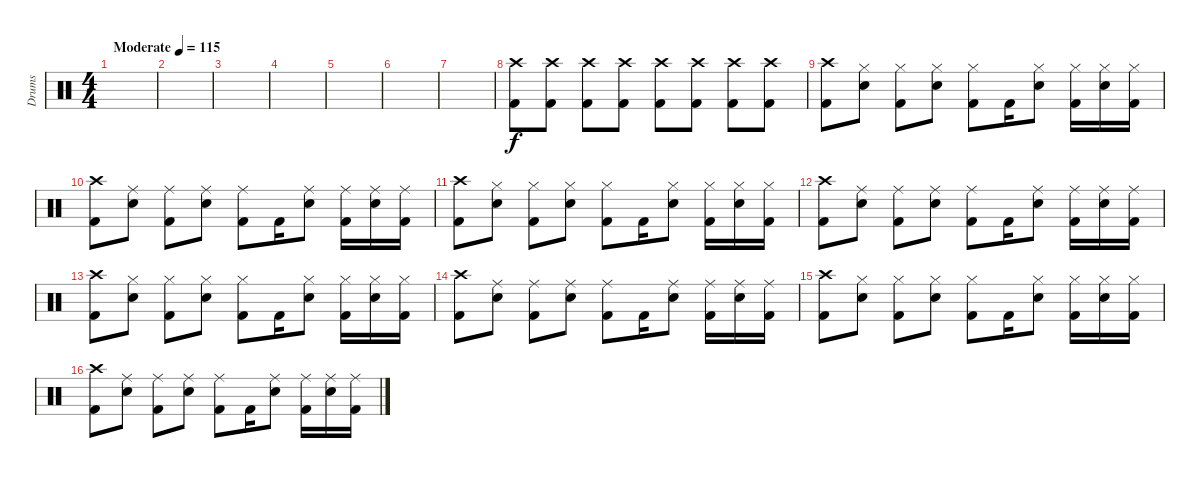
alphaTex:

\track ("Drums" "Drums") {instrument percussion}
\staff {score}
\articulation defaults
\ts (4 4)
\tempo (115 "Moderate")
\clef neutral
\ks c
|
|
|
|
|
|
|
("Crash high (hit)" "Kick (hit) 2").8 ("Crash high (hit)" "Kick (hit) 2").8 ("Crash high (hit)" "Kick (hit) 2").8 ("Crash high (hit)" "Kick (hit) 2").8 ("Crash high (hit)" "Kick (hit) 2").8 ("Crash high (hit)" "Kick (hit) 2").8 ("Crash high (hit)" "Kick (hit) 2").8 ("Crash high (hit)" "Kick (hit) 2").8 |
("Crash high (hit)" "Kick (hit) 2").8 ("Hi-Hat (closed)" "Electric Snare (hit)").8 ("Hi-Hat (closed)" "Kick (hit) 2").8 ("Hi-Hat (closed)" "Electric Snare (hit)").8 ("Hi-Hat (closed)" "Kick (hit) 2").8 "Kick (hit) 2".16 ("Hi-Hat (closed)" "Electric Snare (hit)").8 ("Hi-Hat (closed)" "Kick (hit) 2").16 ("Hi-Hat (closed)" "Electric Snare (hit)").16 ("Hi-Hat (closed)" "Kick (hit) 2").16 |
("Crash high (hit)" "Kick (hit) 2").8 ("Ride (middle)" "Electric Snare (hit)").8 ("Ride (middle)" "Kick (hit) 2").8 ("Ride (middle)" "Electric Snare (hit)").8 ("Ride (middle)" "Kick (hit) 2").8 "Kick (hit) 2".16 ("Ride (middle)" "Electric Snare (hit)").8 ("Ride (middle)" "Kick (hit) 2").16 ("Ride (middle)" "Electric Snare (hit)").16 ("Ride (middle)" "Kick (hit) 2").16 |
("Crash high (hit)" "Kick (hit) 2").8 ("Hi-Hat (closed)" "Electric Snare (hit)").8 ("Hi-Hat (closed)" "Kick (hit) 2").8 ("Hi-Hat (closed)" "Electric Snare (hit)").8 ("Hi-Hat (closed)" "Kick (hit) 2").8 "Kick (hit) 2".16 ("Hi-Hat (closed)" "Electric Snare (hit)").8 ("Hi-Hat (closed)" "Kick (hit) 2").16 ("Hi-Hat (closed)" "Electric Snare (hit)").16 ("Hi-Hat (closed)" "Kick (hit) 2").16 |
("Crash high (hit)" "Kick (hit) 2").8 ("Ride (middle)" "Electric Snare (hit)").8 ("Ride (middle)" "Kick (hit) 2").8 ("Ride (middle)" "Electric Snare (hit)").8 ("Ride (middle)" "Kick (hit) 2").8 "Kick (hit) 2".16 ("Ride (middle)" "Electric Snare (hit)").8 ("Ride (middle)" "Kick (hit) 2").16 ("Ride (middle)" "Electric Snare (hit)").16 ("Ride (middle)" "Kick (hit) 2").16 |
("Crash high (hit)" "Kick (hit) 2").8 ("Hi-Hat (closed)" "Electric Snare (hit)").8 ("Hi-Hat (closed)" "Kick (hit) 2").8 ("Hi-Hat (closed)" "Electric Snare (hit)").8 ("Hi-Hat (closed)" "Kick (hit) 2").8 "Kick (hit) 2".16 ("Hi-Hat (closed)" "Electric Snare (hit)").8 ("Hi-Hat (closed)" "Kick (hit) 2").16 ("Hi-Hat (closed)" "Electric Snare (hit)").16 ("Hi-Hat (closed)" "Kick (hit) 2").16 |
("Crash high (hit)" "Kick (hit) 2").8 ("Ride (middle)" "Electric Snare (hit)").8 ("Ride (middle)" "Kick (hit) 2").8 ("Ride (middle)" "Electric Snare (hit)").8 ("Ride (middle)" "Kick (hit) 2").8 "Kick (hit) 2".16 ("Ride (middle)" "Electric Snare (hit)").8 ("Ride (middle)" "Kick (hit) 2").16 ("Ride (middle)" "Electric Snare (hit)").16 ("Ride (middle)" "Kick (hit) 2").16 |
("Crash high (hit)" "Kick (hit) 2").8 ("Hi-Hat (closed)" "Electric Snare (hit)").8 ("Hi-Hat (closed)" "Kick (hit) 2").8 ("Hi-Hat (closed)" "Electric Snare (hit)").8 ("Hi-Hat (closed)" "Kick (hit) 2").8 "Kick (hit) 2".16 ("Hi-Hat (closed)" "Electric Snare (hit)").8 ("Hi-Hat (closed)" "Kick (hit) 2").16 ("Hi-Hat (closed)" "Electric Snare (hit)").16 ("Hi-Hat (closed)" "Kick (hit) 2").16 |
("Crash high (hit)" "Kick (hit) 2").8 ("Ride (middle)" "Electric Snare (hit)").8 ("Ride (middle)" "Kick (hit) 2").8 ("Ride (middle)" "Electric Snare (hit)").8 ("Ride (middle)" "Kick (hit) 2").8 "Kick (hit) 2".16 ("Ride (middle)" "Electric Snare (hit)").8 ("Ride (middle)" "Kick (hit) 2").16 ("Ride (middle)" "Electric Snare (hit)").16 ("Ride (middle)" "Kick (hit) 2").16
